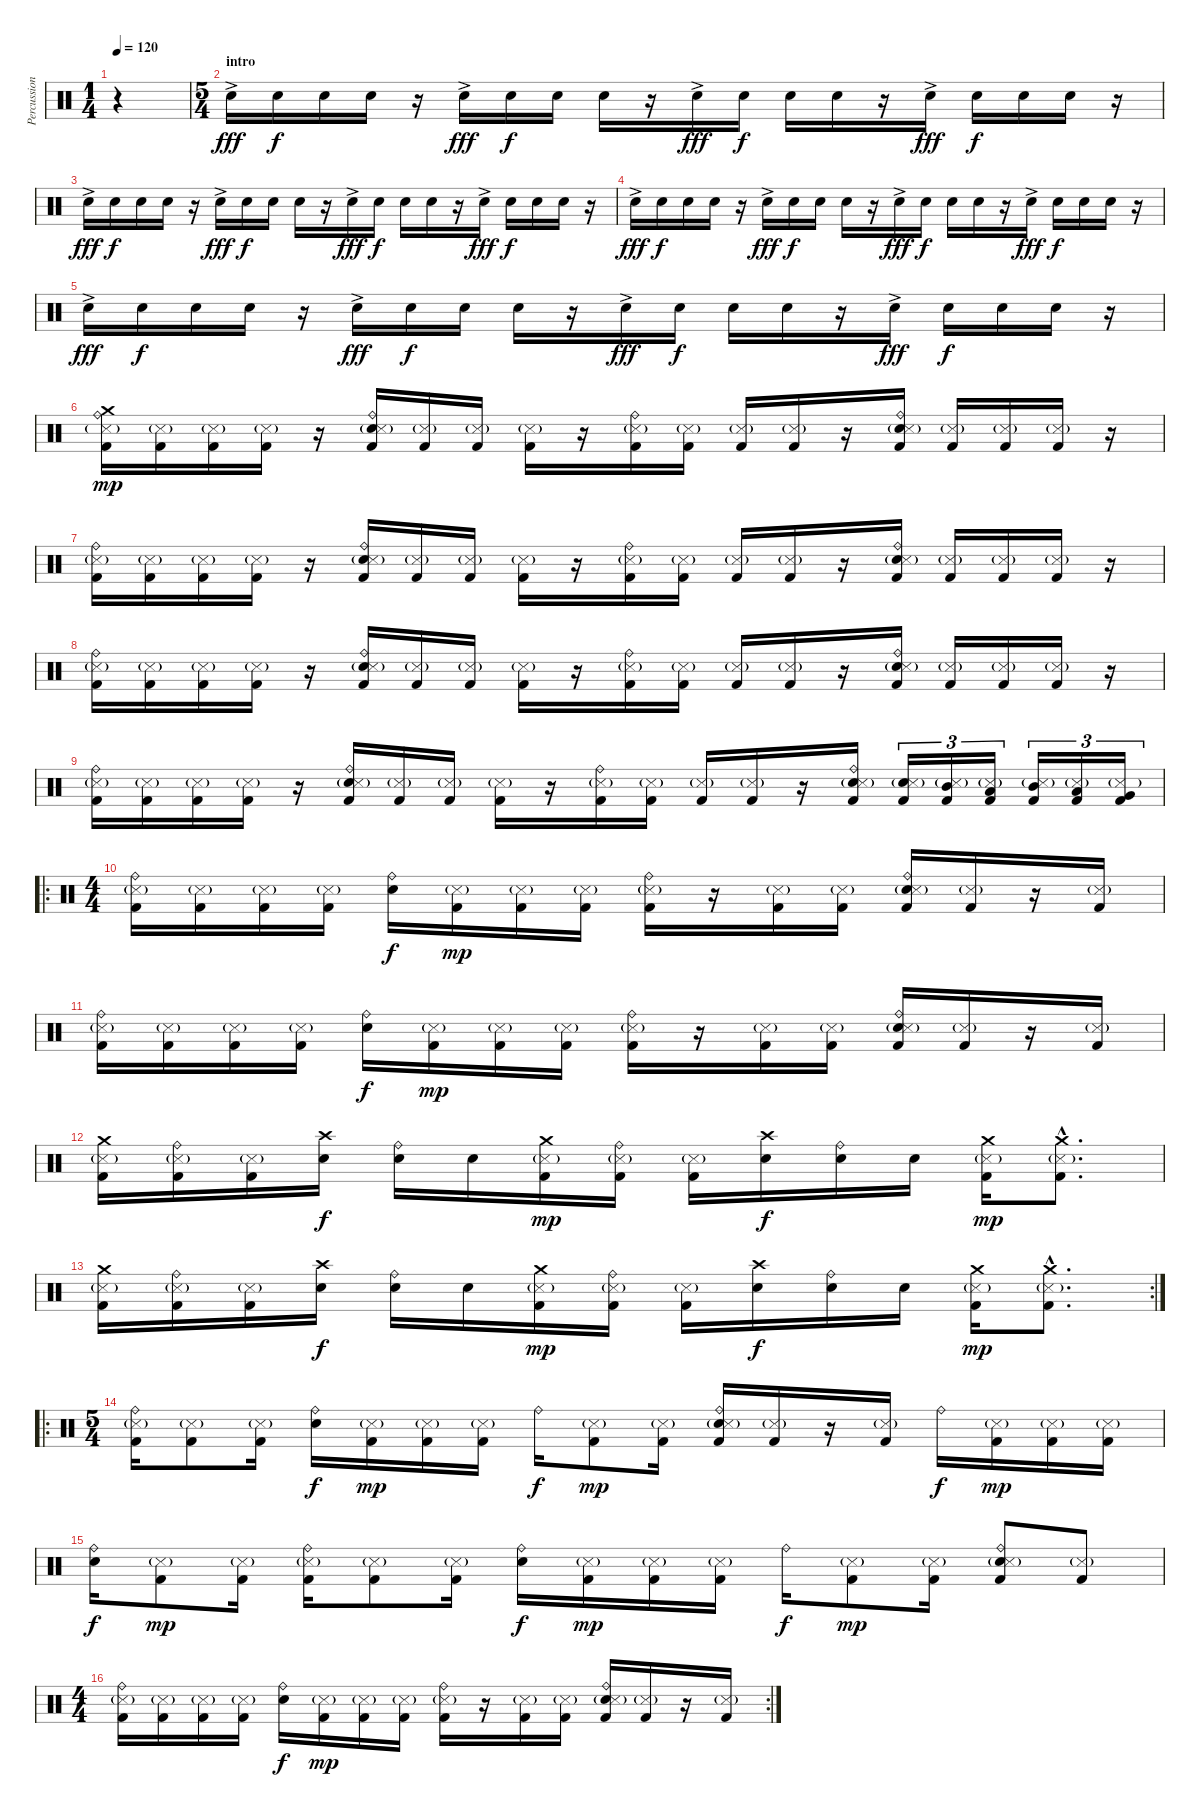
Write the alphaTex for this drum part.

\track ("Percussion" "Percussion") {instrument percussion}
\staff {score}
\articulation defaults
\ts (1 4)
\tempo 120
\clef neutral
\ks c
r.4{dy fff volume 0} |
\ts (5 4)
\section ("" "intro")
"Electric Snare (hit)"{ac}.16{volume 13} "Electric Snare (hit)".16{dy f} "Electric Snare (hit)".16 "Electric Snare (hit)".16 r.16 "Electric Snare (hit)"{ac}.16{dy fff} "Electric Snare (hit)".16{dy f} "Electric Snare (hit)".16 "Electric Snare (hit)".16 r.16 "Electric Snare (hit)"{ac}.16{dy fff} "Electric Snare (hit)".16{dy f} "Electric Snare (hit)".16 "Electric Snare (hit)".16 r.16 "Electric Snare (hit)"{ac}.16{dy fff} "Electric Snare (hit)".16{dy f} "Electric Snare (hit)".16 "Electric Snare (hit)".16 r.16 |
"Electric Snare (hit)"{ac}.16{dy fff} "Electric Snare (hit)".16{dy f} "Electric Snare (hit)".16 "Electric Snare (hit)".16 r.16 "Electric Snare (hit)"{ac}.16{dy fff} "Electric Snare (hit)".16{dy f} "Electric Snare (hit)".16 "Electric Snare (hit)".16 r.16 "Electric Snare (hit)"{ac}.16{dy fff} "Electric Snare (hit)".16{dy f} "Electric Snare (hit)".16 "Electric Snare (hit)".16 r.16 "Electric Snare (hit)"{ac}.16{dy fff} "Electric Snare (hit)".16{dy f} "Electric Snare (hit)".16 "Electric Snare (hit)".16 r.16 |
"Electric Snare (hit)"{ac}.16{dy fff} "Electric Snare (hit)".16{dy f} "Electric Snare (hit)".16 "Electric Snare (hit)".16 r.16 "Electric Snare (hit)"{ac}.16{dy fff} "Electric Snare (hit)".16{dy f} "Electric Snare (hit)".16 "Electric Snare (hit)".16 r.16 "Electric Snare (hit)"{ac}.16{dy fff} "Electric Snare (hit)".16{dy f} "Electric Snare (hit)".16 "Electric Snare (hit)".16 r.16 "Electric Snare (hit)"{ac}.16{dy fff} "Electric Snare (hit)".16{dy f} "Electric Snare (hit)".16 "Electric Snare (hit)".16 r.16 |
"Electric Snare (hit)"{ac}.16{dy fff} "Electric Snare (hit)".16{dy f} "Electric Snare (hit)".16 "Electric Snare (hit)".16 r.16 "Electric Snare (hit)"{ac}.16{dy fff} "Electric Snare (hit)".16{dy f} "Electric Snare (hit)".16 "Electric Snare (hit)".16 r.16 "Electric Snare (hit)"{ac}.16{dy fff} "Electric Snare (hit)".16{dy f} "Electric Snare (hit)".16 "Electric Snare (hit)".16 r.16 "Electric Snare (hit)"{ac}.16{dy fff} "Electric Snare (hit)".16{dy f} "Electric Snare (hit)".16 "Electric Snare (hit)".16 r.16 |
("Crash medium (hit)" "Ride (bell)" "Snare (side stick) 3"{g} "Kick (hit) 2").16{dy mp volume 13} ("Snare (side stick) 3"{g} "Kick (hit) 2").16 ("Snare (side stick) 3"{g} "Kick (hit) 2").16 ("Snare (side stick) 3"{g} "Kick (hit) 2").16 r.16 ("Ride (bell)" "Electric Snare (hit)" "Snare (side stick) 3"{g} "Kick (hit) 2").16 ("Snare (side stick) 3"{g} "Kick (hit) 2").16 ("Snare (side stick) 3"{g} "Kick (hit) 2").16 ("Snare (side stick) 3"{g} "Kick (hit) 2").16 r.16 ("Ride (bell)" "Snare (side stick) 3"{g} "Kick (hit) 2").16 ("Snare (side stick) 3"{g} "Kick (hit) 2").16 ("Snare (side stick) 3"{g} "Kick (hit) 2").16 ("Snare (side stick) 3"{g} "Kick (hit) 2").16 r.16 ("Ride (bell)" "Electric Snare (hit)" "Snare (side stick) 3"{g} "Kick (hit) 2").16 ("Snare (side stick) 3"{g} "Kick (hit) 2").16 ("Snare (side stick) 3"{g} "Kick (hit) 2").16 ("Snare (side stick) 3"{g} "Kick (hit) 2").16 r.16 |
("Ride (bell)" "Snare (side stick) 3"{g} "Kick (hit) 2").16 ("Snare (side stick) 3"{g} "Kick (hit) 2").16 ("Snare (side stick) 3"{g} "Kick (hit) 2").16 ("Snare (side stick) 3"{g} "Kick (hit) 2").16 r.16 ("Ride (bell)" "Electric Snare (hit)" "Snare (side stick) 3"{g} "Kick (hit) 2").16 ("Snare (side stick) 3"{g} "Kick (hit) 2").16 ("Snare (side stick) 3"{g} "Kick (hit) 2").16 ("Snare (side stick) 3"{g} "Kick (hit) 2").16 r.16 ("Ride (bell)" "Snare (side stick) 3"{g} "Kick (hit) 2").16 ("Snare (side stick) 3"{g} "Kick (hit) 2").16 ("Snare (side stick) 3"{g} "Kick (hit) 2").16 ("Snare (side stick) 3"{g} "Kick (hit) 2").16 r.16 ("Ride (bell)" "Electric Snare (hit)" "Snare (side stick) 3"{g} "Kick (hit) 2").16 ("Snare (side stick) 3"{g} "Kick (hit) 2").16 ("Snare (side stick) 3"{g} "Kick (hit) 2").16 ("Snare (side stick) 3"{g} "Kick (hit) 2").16 r.16 |
("Ride (bell)" "Snare (side stick) 3"{g} "Kick (hit) 2").16 ("Snare (side stick) 3"{g} "Kick (hit) 2").16 ("Snare (side stick) 3"{g} "Kick (hit) 2").16 ("Snare (side stick) 3"{g} "Kick (hit) 2").16 r.16 ("Ride (bell)" "Electric Snare (hit)" "Snare (side stick) 3"{g} "Kick (hit) 2").16 ("Snare (side stick) 3"{g} "Kick (hit) 2").16 ("Snare (side stick) 3"{g} "Kick (hit) 2").16 ("Snare (side stick) 3"{g} "Kick (hit) 2").16 r.16 ("Ride (bell)" "Snare (side stick) 3"{g} "Kick (hit) 2").16 ("Snare (side stick) 3"{g} "Kick (hit) 2").16 ("Snare (side stick) 3"{g} "Kick (hit) 2").16 ("Snare (side stick) 3"{g} "Kick (hit) 2").16 r.16 ("Ride (bell)" "Electric Snare (hit)" "Snare (side stick) 3"{g} "Kick (hit) 2").16 ("Snare (side stick) 3"{g} "Kick (hit) 2").16 ("Snare (side stick) 3"{g} "Kick (hit) 2").16 ("Snare (side stick) 3"{g} "Kick (hit) 2").16 r.16 |
("Ride (bell)" "Snare (side stick) 3"{g} "Kick (hit) 2").16 ("Snare (side stick) 3"{g} "Kick (hit) 2").16 ("Snare (side stick) 3"{g} "Kick (hit) 2").16 ("Snare (side stick) 3"{g} "Kick (hit) 2").16 r.16 ("Ride (bell)" "Electric Snare (hit)" "Snare (side stick) 3"{g} "Kick (hit) 2").16 ("Snare (side stick) 3"{g} "Kick (hit) 2").16 ("Snare (side stick) 3"{g} "Kick (hit) 2").16 ("Snare (side stick) 3"{g} "Kick (hit) 2").16 r.16 ("Ride (bell)" "Snare (side stick) 3"{g} "Kick (hit) 2").16 ("Snare (side stick) 3"{g} "Kick (hit) 2").16 ("Snare (side stick) 3"{g} "Kick (hit) 2").16 ("Snare (side stick) 3"{g} "Kick (hit) 2").16 r.16 ("Ride (bell)" "Electric Snare (hit)" "Snare (side stick) 3"{g} "Kick (hit) 2").16 ("Electric Snare (hit)" "Snare (side stick) 3"{g} "Kick (hit) 2").16{tu (3 2)} ("Mid Tom (hit)" "Snare (side stick) 3"{g} "Kick (hit) 2").16{tu (3 2)} ("Low Tom (hit)" "Snare (side stick) 3"{g} "Kick (hit) 2").16{tu (3 2)} ("Mid Tom (hit)" "Snare (side stick) 3"{g} "Kick (hit) 2").16{tu (3 2)} ("Low Tom (hit)" "Snare (side stick) 3"{g} "Kick (hit) 2").16{tu (3 2)} ("Very Low Tom (hit)" "Snare (side stick) 3"{g} "Kick (hit) 2").16{tu (3 2)} |
\ro
\ts (4 4)
("Ride (bell)" "Snare (side stick) 3"{g} "Kick (hit) 2").16 ("Snare (side stick) 3"{g} "Kick (hit) 2").16 ("Snare (side stick) 3"{g} "Kick (hit) 2").16 ("Snare (side stick) 3"{g} "Kick (hit) 2").16 ("Ride (bell)" "Electric Snare (hit)").16{dy f} ("Snare (side stick) 3"{g} "Kick (hit) 2").16{dy mp} ("Snare (side stick) 3"{g} "Kick (hit) 2").16 ("Snare (side stick) 3"{g} "Kick (hit) 2").16 ("Ride (bell)" "Snare (side stick) 3"{g} "Kick (hit) 2").16 r.16 ("Snare (side stick) 3"{g} "Kick (hit) 2").16 ("Snare (side stick) 3"{g} "Kick (hit) 2").16 ("Ride (bell)" "Electric Snare (hit)" "Snare (side stick) 3"{g} "Kick (hit) 2").16 ("Snare (side stick) 3"{g} "Kick (hit) 2").16 r.16 ("Snare (side stick) 3"{g} "Kick (hit) 2").16 |
("Ride (bell)" "Snare (side stick) 3"{g} "Kick (hit) 2").16 ("Snare (side stick) 3"{g} "Kick (hit) 2").16 ("Snare (side stick) 3"{g} "Kick (hit) 2").16 ("Snare (side stick) 3"{g} "Kick (hit) 2").16 ("Ride (bell)" "Electric Snare (hit)").16{dy f} ("Snare (side stick) 3"{g} "Kick (hit) 2").16{dy mp} ("Snare (side stick) 3"{g} "Kick (hit) 2").16 ("Snare (side stick) 3"{g} "Kick (hit) 2").16 ("Ride (bell)" "Snare (side stick) 3"{g} "Kick (hit) 2").16 r.16 ("Snare (side stick) 3"{g} "Kick (hit) 2").16 ("Snare (side stick) 3"{g} "Kick (hit) 2").16 ("Ride (bell)" "Electric Snare (hit)" "Snare (side stick) 3"{g} "Kick (hit) 2").16 ("Snare (side stick) 3"{g} "Kick (hit) 2").16 r.16 ("Snare (side stick) 3"{g} "Kick (hit) 2").16 |
("Crash medium (hit)" "Snare (side stick) 3"{g} "Kick (hit) 2").16 ("Ride (bell)" "Snare (side stick) 3"{g} "Kick (hit) 2").16 ("Snare (side stick) 3"{g} "Kick (hit) 2").16 ("Crash high (hit)" "Electric Snare (hit)").16{dy f} ("Ride (bell)" "Electric Snare (hit)").16 "Electric Snare (hit)".16 ("Crash medium (hit)" "Snare (side stick) 3"{g} "Kick (hit) 2").16{dy mp} ("Ride (bell)" "Snare (side stick) 3"{g} "Kick (hit) 2").16 ("Snare (side stick) 3"{g} "Kick (hit) 2").16 ("Crash high (hit)" "Electric Snare (hit)").16{dy f} ("Ride (bell)" "Electric Snare (hit)").16 "Electric Snare (hit)".16 ("Crash medium (hit)" "Snare (side stick) 3"{g} "Kick (hit) 2").16{dy mp} ("Crash medium (hit)"{hac} "Snare (side stick) 3"{g hac} "Kick (hit) 2"{hac}).8{d} |
\rc 2
("Crash medium (hit)" "Snare (side stick) 3"{g} "Kick (hit) 2").16 ("Ride (bell)" "Snare (side stick) 3"{g} "Kick (hit) 2").16 ("Snare (side stick) 3"{g} "Kick (hit) 2").16 ("Crash high (hit)" "Electric Snare (hit)").16{dy f} ("Ride (bell)" "Electric Snare (hit)").16 "Electric Snare (hit)".16 ("Crash medium (hit)" "Snare (side stick) 3"{g} "Kick (hit) 2").16{dy mp} ("Ride (bell)" "Snare (side stick) 3"{g} "Kick (hit) 2").16 ("Snare (side stick) 3"{g} "Kick (hit) 2").16 ("Crash high (hit)" "Electric Snare (hit)").16{dy f} ("Ride (bell)" "Electric Snare (hit)").16 "Electric Snare (hit)".16 ("Crash medium (hit)" "Snare (side stick) 3"{g} "Kick (hit) 2").16{dy mp} ("Crash medium (hit)"{hac} "Snare (side stick) 3"{g hac} "Kick (hit) 2"{hac}).8{d} |
\ro
\ts (5 4)
("Ride (bell)" "Snare (side stick) 3"{g} "Kick (hit) 2").16 ("Snare (side stick) 3"{g} "Kick (hit) 2").8 ("Snare (side stick) 3"{g} "Kick (hit) 2").16 ("Ride (bell)" "Electric Snare (hit)").16{dy f} ("Snare (side stick) 3"{g} "Kick (hit) 2").16{dy mp} ("Snare (side stick) 3"{g} "Kick (hit) 2").16 ("Snare (side stick) 3"{g} "Kick (hit) 2").16 "Ride (bell)".16{dy f} ("Snare (side stick) 3"{g} "Kick (hit) 2").8{dy mp} ("Snare (side stick) 3"{g} "Kick (hit) 2").16 ("Ride (bell)" "Electric Snare (hit)" "Snare (side stick) 3"{g} "Kick (hit) 2").16 ("Snare (side stick) 3"{g} "Kick (hit) 2").16 r.16 ("Snare (side stick) 3"{g} "Kick (hit) 2").16 "Ride (bell)".16{dy f} ("Snare (side stick) 3"{g} "Kick (hit) 2").16{dy mp} ("Snare (side stick) 3"{g} "Kick (hit) 2").16 ("Snare (side stick) 3"{g} "Kick (hit) 2").16 |
("Ride (bell)" "Electric Snare (hit)").16{dy f} ("Snare (side stick) 3"{g} "Kick (hit) 2").8{dy mp} ("Snare (side stick) 3"{g} "Kick (hit) 2").16 ("Ride (bell)" "Snare (side stick) 3"{g} "Kick (hit) 2").16 ("Snare (side stick) 3"{g} "Kick (hit) 2").8 ("Snare (side stick) 3"{g} "Kick (hit) 2").16 ("Ride (bell)" "Electric Snare (hit)").16{dy f} ("Snare (side stick) 3"{g} "Kick (hit) 2").16{dy mp} ("Snare (side stick) 3"{g} "Kick (hit) 2").16 ("Snare (side stick) 3"{g} "Kick (hit) 2").16 "Ride (bell)".16{dy f} ("Snare (side stick) 3"{g} "Kick (hit) 2").8{dy mp} ("Snare (side stick) 3"{g} "Kick (hit) 2").16 ("Ride (bell)" "Electric Snare (hit)" "Snare (side stick) 3"{g} "Kick (hit) 2").8 ("Snare (side stick) 3"{g} "Kick (hit) 2").8 |
\rc 2
\ts (4 4)
("Ride (bell)" "Snare (side stick) 3"{g} "Kick (hit) 2").16 ("Snare (side stick) 3"{g} "Kick (hit) 2").16 ("Snare (side stick) 3"{g} "Kick (hit) 2").16 ("Snare (side stick) 3"{g} "Kick (hit) 2").16 ("Ride (bell)" "Electric Snare (hit)").16{dy f} ("Snare (side stick) 3"{g} "Kick (hit) 2").16{dy mp} ("Snare (side stick) 3"{g} "Kick (hit) 2").16 ("Snare (side stick) 3"{g} "Kick (hit) 2").16 ("Ride (bell)" "Snare (side stick) 3"{g} "Kick (hit) 2").16 r.16 ("Snare (side stick) 3"{g} "Kick (hit) 2").16 ("Snare (side stick) 3"{g} "Kick (hit) 2").16 ("Ride (bell)" "Electric Snare (hit)" "Snare (side stick) 3"{g} "Kick (hit) 2").16 ("Snare (side stick) 3"{g} "Kick (hit) 2").16 r.16 ("Snare (side stick) 3"{g} "Kick (hit) 2").16
